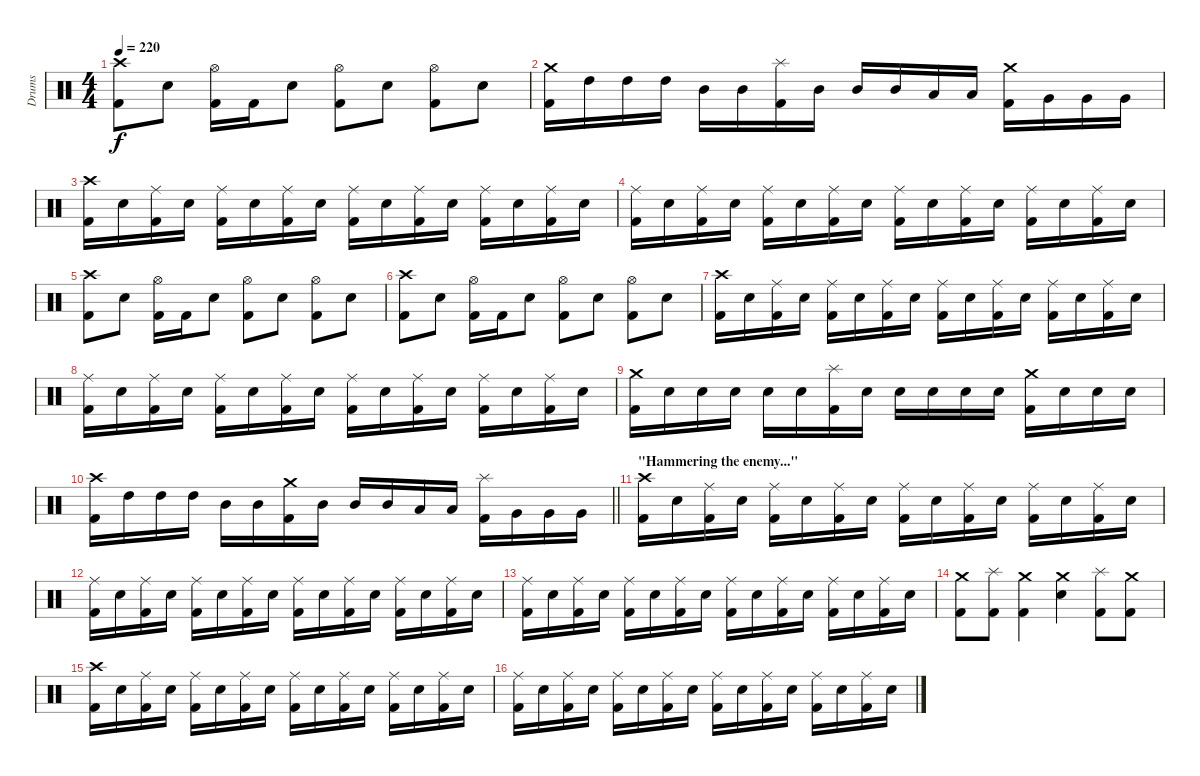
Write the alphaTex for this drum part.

\track ("Drums" "Drums") {instrument percussion}
\staff {score}
\articulation defaults
\ts (4 4)
\tempo 220
\clef neutral
\ks c
("Crash high (hit)" "Kick (hit) 2").8{dy f} "Electric Snare (hit)".8 ("Hi-Hat (open)" "Kick (hit) 2").16 "Kick (hit) 2".16 "Electric Snare (hit)".8 ("Hi-Hat (open)" "Kick (hit) 2").8 "Electric Snare (hit)".8 ("Hi-Hat (open)" "Kick (hit) 2").8 "Electric Snare (hit)".8 |
("Crash medium (hit)" "Kick (hit) 2").16 "High Tom (hit)".16 "High Tom (hit)".16 "High Tom (hit)".16 "Mid Tom (hit)".16 "Mid Tom (hit)".16 ("Splash (hit)" "Kick (hit) 2").16 "Mid Tom (hit)".16 "Mid Tom (hit)".16 "Mid Tom (hit)".16 "Low Tom (hit)".16 "Low Tom (hit)".16 ("Crash medium (hit)" "Kick (hit) 2").16 "Very Low Tom (hit)".16 "Very Low Tom (hit)".16 "Very Low Tom (hit)".16 |
("Crash high (hit)" "Kick (hit) 2").16 "Electric Snare (hit)".16 ("Ride (middle)" "Kick (hit) 2").16 "Electric Snare (hit)".16 ("Ride (middle)" "Kick (hit) 2").16 "Electric Snare (hit)".16 ("Ride (middle)" "Kick (hit) 2").16 "Electric Snare (hit)".16 ("Ride (middle)" "Kick (hit) 2").16 "Electric Snare (hit)".16 ("Ride (middle)" "Kick (hit) 2").16 "Electric Snare (hit)".16 ("Ride (middle)" "Kick (hit) 2").16 "Electric Snare (hit)".16 ("Ride (middle)" "Kick (hit) 2").16 "Electric Snare (hit)".16 |
("Ride (middle)" "Kick (hit) 2").16 "Electric Snare (hit)".16 ("Ride (middle)" "Kick (hit) 2").16 "Electric Snare (hit)".16 ("Ride (middle)" "Kick (hit) 2").16 "Electric Snare (hit)".16 ("Ride (middle)" "Kick (hit) 2").16 "Electric Snare (hit)".16 ("Ride (middle)" "Kick (hit) 2").16 "Electric Snare (hit)".16 ("Ride (middle)" "Kick (hit) 2").16 "Electric Snare (hit)".16 ("Ride (middle)" "Kick (hit) 2").16 "Electric Snare (hit)".16 ("Ride (middle)" "Kick (hit) 2").16 "Electric Snare (hit)".16 |
("Crash high (hit)" "Kick (hit) 2").8 "Electric Snare (hit)".8 ("Hi-Hat (open)" "Kick (hit) 2").16 "Kick (hit) 2".16 "Electric Snare (hit)".8 ("Hi-Hat (open)" "Kick (hit) 2").8 "Electric Snare (hit)".8 ("Hi-Hat (open)" "Kick (hit) 2").8 "Electric Snare (hit)".8 |
("Crash high (hit)" "Kick (hit) 2").8 "Electric Snare (hit)".8 ("Hi-Hat (open)" "Kick (hit) 2").16 "Kick (hit) 2".16 "Electric Snare (hit)".8 ("Hi-Hat (open)" "Kick (hit) 2").8 "Electric Snare (hit)".8 ("Hi-Hat (open)" "Kick (hit) 2").8 "Electric Snare (hit)".8 |
("Crash high (hit)" "Kick (hit) 2").16 "Electric Snare (hit)".16 ("Ride (middle)" "Kick (hit) 2").16 "Electric Snare (hit)".16 ("Ride (middle)" "Kick (hit) 2").16 "Electric Snare (hit)".16 ("Ride (middle)" "Kick (hit) 2").16 "Electric Snare (hit)".16 ("Ride (middle)" "Kick (hit) 2").16 "Electric Snare (hit)".16 ("Ride (middle)" "Kick (hit) 2").16 "Electric Snare (hit)".16 ("Ride (middle)" "Kick (hit) 2").16 "Electric Snare (hit)".16 ("Ride (middle)" "Kick (hit) 2").16 "Electric Snare (hit)".16 |
("Ride (middle)" "Kick (hit) 2").16 "Electric Snare (hit)".16 ("Ride (middle)" "Kick (hit) 2").16 "Electric Snare (hit)".16 ("Ride (middle)" "Kick (hit) 2").16 "Electric Snare (hit)".16 ("Ride (middle)" "Kick (hit) 2").16 "Electric Snare (hit)".16 ("Ride (middle)" "Kick (hit) 2").16 "Electric Snare (hit)".16 ("Ride (middle)" "Kick (hit) 2").16 "Electric Snare (hit)".16 ("Ride (middle)" "Kick (hit) 2").16 "Electric Snare (hit)".16 ("Ride (middle)" "Kick (hit) 2").16 "Electric Snare (hit)".16 |
("Crash medium (hit)" "Kick (hit) 2").16 "Electric Snare (hit)".16 "Electric Snare (hit)".16 "Electric Snare (hit)".16 "Electric Snare (hit)".16 "Electric Snare (hit)".16 ("Splash (hit)" "Kick (hit) 2").16 "Electric Snare (hit)".16 "Electric Snare (hit)".16 "Electric Snare (hit)".16 "Electric Snare (hit)".16 "Electric Snare (hit)".16 ("Crash medium (hit)" "Kick (hit) 2").16 "Electric Snare (hit)".16 "Electric Snare (hit)".16 "Electric Snare (hit)".16 |
\barLineRight lightlight
("Crash high (hit)" "Kick (hit) 2").16 "High Tom (hit)".16 "High Tom (hit)".16 "High Tom (hit)".16 "Mid Tom (hit)".16 "Mid Tom (hit)".16 ("Crash medium (hit)" "Kick (hit) 2").16 "Mid Tom (hit)".16 "Mid Tom (hit)".16 "Mid Tom (hit)".16 "Low Tom (hit)".16 "Low Tom (hit)".16 ("Splash (hit)" "Kick (hit) 2").16 "Very Low Tom (hit)".16 "Very Low Tom (hit)".16 "Very Low Tom (hit)".16 |
\section ("" "\"Hammering the enemy...\"")
("Crash high (hit)" "Kick (hit) 2").16 "Electric Snare (hit)".16 ("Ride (middle)" "Kick (hit) 2").16 "Electric Snare (hit)".16 ("Ride (middle)" "Kick (hit) 2").16 "Electric Snare (hit)".16 ("Ride (middle)" "Kick (hit) 2").16 "Electric Snare (hit)".16 ("Ride (middle)" "Kick (hit) 2").16 "Electric Snare (hit)".16 ("Ride (middle)" "Kick (hit) 2").16 "Electric Snare (hit)".16 ("Ride (middle)" "Kick (hit) 2").16 "Electric Snare (hit)".16 ("Ride (middle)" "Kick (hit) 2").16 "Electric Snare (hit)".16 |
("Ride (middle)" "Kick (hit) 2").16 "Electric Snare (hit)".16 ("Ride (middle)" "Kick (hit) 2").16 "Electric Snare (hit)".16 ("Ride (middle)" "Kick (hit) 2").16 "Electric Snare (hit)".16 ("Ride (middle)" "Kick (hit) 2").16 "Electric Snare (hit)".16 ("Ride (middle)" "Kick (hit) 2").16 "Electric Snare (hit)".16 ("Ride (middle)" "Kick (hit) 2").16 "Electric Snare (hit)".16 ("Ride (middle)" "Kick (hit) 2").16 "Electric Snare (hit)".16 ("Ride (middle)" "Kick (hit) 2").16 "Electric Snare (hit)".16 |
("Ride (middle)" "Kick (hit) 2").16 "Electric Snare (hit)".16 ("Ride (middle)" "Kick (hit) 2").16 "Electric Snare (hit)".16 ("Ride (middle)" "Kick (hit) 2").16 "Electric Snare (hit)".16 ("Ride (middle)" "Kick (hit) 2").16 "Electric Snare (hit)".16 ("Ride (middle)" "Kick (hit) 2").16 "Electric Snare (hit)".16 ("Ride (middle)" "Kick (hit) 2").16 "Electric Snare (hit)".16 ("Ride (middle)" "Kick (hit) 2").16 "Electric Snare (hit)".16 ("Ride (middle)" "Kick (hit) 2").16 "Electric Snare (hit)".16 |
("Crash medium (hit)" "Kick (hit) 2").8 ("Splash (hit)" "Kick (hit) 2").8 ("Crash medium (hit)" "Kick (hit) 2").4 ("Crash medium (hit)" "Electric Snare (hit)").4 ("Splash (hit)" "Kick (hit) 2").8 ("Crash medium (hit)" "Kick (hit) 2").8 |
("Crash high (hit)" "Kick (hit) 2").16 "Electric Snare (hit)".16 ("Ride (middle)" "Kick (hit) 2").16 "Electric Snare (hit)".16 ("Ride (middle)" "Kick (hit) 2").16 "Electric Snare (hit)".16 ("Ride (middle)" "Kick (hit) 2").16 "Electric Snare (hit)".16 ("Ride (middle)" "Kick (hit) 2").16 "Electric Snare (hit)".16 ("Ride (middle)" "Kick (hit) 2").16 "Electric Snare (hit)".16 ("Ride (middle)" "Kick (hit) 2").16 "Electric Snare (hit)".16 ("Ride (middle)" "Kick (hit) 2").16 "Electric Snare (hit)".16 |
("Ride (middle)" "Kick (hit) 2").16 "Electric Snare (hit)".16 ("Ride (middle)" "Kick (hit) 2").16 "Electric Snare (hit)".16 ("Ride (middle)" "Kick (hit) 2").16 "Electric Snare (hit)".16 ("Ride (middle)" "Kick (hit) 2").16 "Electric Snare (hit)".16 ("Ride (middle)" "Kick (hit) 2").16 "Electric Snare (hit)".16 ("Ride (middle)" "Kick (hit) 2").16 "Electric Snare (hit)".16 ("Ride (middle)" "Kick (hit) 2").16 "Electric Snare (hit)".16 ("Ride (middle)" "Kick (hit) 2").16 "Electric Snare (hit)".16
